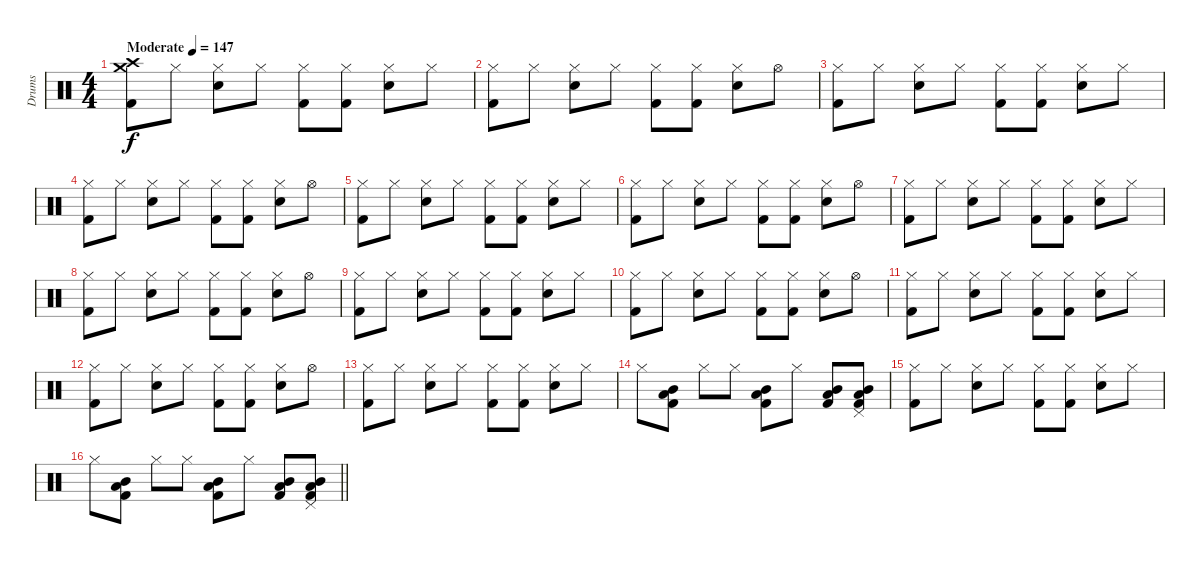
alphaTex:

\track ("Drums" "Drums") {instrument percussion}
\staff {score}
\articulation defaults
\ts (4 4)
\tempo (147 "Moderate")
\clef neutral
\ks c
("Crash medium (hit)" "Crash high (hit)" "Kick (hit) 2").8{dy f} "Hi-Hat (closed)".8 ("Hi-Hat (closed)" "Electric Snare (hit)").8 "Hi-Hat (closed)".8 ("Hi-Hat (closed)" "Kick (hit) 2").8 ("Hi-Hat (closed)" "Kick (hit) 2").8 ("Hi-Hat (closed)" "Electric Snare (hit)").8 "Hi-Hat (closed)".8 |
("Hi-Hat (closed)" "Kick (hit) 2").8 "Hi-Hat (closed)".8 ("Hi-Hat (closed)" "Electric Snare (hit)").8 "Hi-Hat (closed)".8 ("Hi-Hat (closed)" "Kick (hit) 2").8 ("Hi-Hat (closed)" "Kick (hit) 2").8 ("Hi-Hat (closed)" "Electric Snare (hit)").8 "Hi-Hat (open)".8 |
("Hi-Hat (closed)" "Kick (hit) 2").8 "Hi-Hat (closed)".8 ("Hi-Hat (closed)" "Electric Snare (hit)").8 "Hi-Hat (closed)".8 ("Hi-Hat (closed)" "Kick (hit) 2").8 ("Hi-Hat (closed)" "Kick (hit) 2").8 ("Hi-Hat (closed)" "Electric Snare (hit)").8 "Hi-Hat (closed)".8 |
("Hi-Hat (closed)" "Kick (hit) 2").8 "Hi-Hat (closed)".8 ("Hi-Hat (closed)" "Electric Snare (hit)").8 "Hi-Hat (closed)".8 ("Hi-Hat (closed)" "Kick (hit) 2").8 ("Hi-Hat (closed)" "Kick (hit) 2").8 ("Hi-Hat (closed)" "Electric Snare (hit)").8 "Hi-Hat (open)".8 |
("Hi-Hat (closed)" "Kick (hit) 2").8 "Hi-Hat (closed)".8 ("Hi-Hat (closed)" "Electric Snare (hit)").8 "Hi-Hat (closed)".8 ("Hi-Hat (closed)" "Kick (hit) 2").8 ("Hi-Hat (closed)" "Kick (hit) 2").8 ("Hi-Hat (closed)" "Electric Snare (hit)").8 "Hi-Hat (closed)".8 |
("Hi-Hat (closed)" "Kick (hit) 2").8 "Hi-Hat (closed)".8 ("Hi-Hat (closed)" "Electric Snare (hit)").8 "Hi-Hat (closed)".8 ("Hi-Hat (closed)" "Kick (hit) 2").8 ("Hi-Hat (closed)" "Kick (hit) 2").8 ("Hi-Hat (closed)" "Electric Snare (hit)").8 "Hi-Hat (open)".8 |
("Hi-Hat (closed)" "Kick (hit) 2").8 "Hi-Hat (closed)".8 ("Hi-Hat (closed)" "Electric Snare (hit)").8 "Hi-Hat (closed)".8 ("Hi-Hat (closed)" "Kick (hit) 2").8 ("Hi-Hat (closed)" "Kick (hit) 2").8 ("Hi-Hat (closed)" "Electric Snare (hit)").8 "Hi-Hat (closed)".8 |
("Hi-Hat (closed)" "Kick (hit) 2").8 "Hi-Hat (closed)".8 ("Hi-Hat (closed)" "Electric Snare (hit)").8 "Hi-Hat (closed)".8 ("Hi-Hat (closed)" "Kick (hit) 2").8 ("Hi-Hat (closed)" "Kick (hit) 2").8 ("Hi-Hat (closed)" "Electric Snare (hit)").8 "Hi-Hat (open)".8 |
("Hi-Hat (closed)" "Kick (hit) 2").8 "Hi-Hat (closed)".8 ("Hi-Hat (closed)" "Electric Snare (hit)").8 "Hi-Hat (closed)".8 ("Hi-Hat (closed)" "Kick (hit) 2").8 ("Hi-Hat (closed)" "Kick (hit) 2").8 ("Hi-Hat (closed)" "Electric Snare (hit)").8 "Hi-Hat (closed)".8 |
("Hi-Hat (closed)" "Kick (hit) 2").8 "Hi-Hat (closed)".8 ("Hi-Hat (closed)" "Electric Snare (hit)").8 "Hi-Hat (closed)".8 ("Hi-Hat (closed)" "Kick (hit) 2").8 ("Hi-Hat (closed)" "Kick (hit) 2").8 ("Hi-Hat (closed)" "Electric Snare (hit)").8 "Hi-Hat (open)".8 |
("Hi-Hat (closed)" "Kick (hit) 2").8 "Hi-Hat (closed)".8 ("Hi-Hat (closed)" "Electric Snare (hit)").8 "Hi-Hat (closed)".8 ("Hi-Hat (closed)" "Kick (hit) 2").8 ("Hi-Hat (closed)" "Kick (hit) 2").8 ("Hi-Hat (closed)" "Electric Snare (hit)").8 "Hi-Hat (closed)".8 |
("Hi-Hat (closed)" "Kick (hit) 2").8 "Hi-Hat (closed)".8 ("Hi-Hat (closed)" "Electric Snare (hit)").8 "Hi-Hat (closed)".8 ("Hi-Hat (closed)" "Kick (hit) 2").8 ("Hi-Hat (closed)" "Kick (hit) 2").8 ("Hi-Hat (closed)" "Electric Snare (hit)").8 "Hi-Hat (open)".8 |
("Hi-Hat (closed)" "Kick (hit) 2").8 "Hi-Hat (closed)".8 ("Hi-Hat (closed)" "Electric Snare (hit)").8 "Hi-Hat (closed)".8 ("Hi-Hat (closed)" "Kick (hit) 2").8 ("Hi-Hat (closed)" "Kick (hit) 2").8 ("Hi-Hat (closed)" "Electric Snare (hit)").8 "Hi-Hat (closed)".8 |
"Hi-Hat (closed)".8 ("Low Tom (hit)" "Mid Tom (hit)" "Kick (hit) 2").8{volume 16} "Hi-Hat (closed)".8 "Hi-Hat (closed)".8 ("Mid Tom (hit)" "Low Tom (hit)" "Kick (hit) 2").8 "Hi-Hat (closed)".8 ("Low Tom (hit)" "Mid Tom (hit)" "Kick (hit) 2").8 ("Pedal Hi-Hat (hit)" "Low Tom (hit)" "Mid Tom (hit)" "Kick (hit) 2").8 |
("Hi-Hat (closed)" "Kick (hit) 2").8{volume 14} "Hi-Hat (closed)".8 ("Hi-Hat (closed)" "Electric Snare (hit)").8 "Hi-Hat (closed)".8 ("Hi-Hat (closed)" "Kick (hit) 2").8 ("Hi-Hat (closed)" "Kick (hit) 2").8 ("Hi-Hat (closed)" "Electric Snare (hit)").8 "Hi-Hat (closed)".8 |
\barLineRight lightlight "Hi-Hat (closed)".8{volume 16}
("Low Tom (hit)" "Mid Tom (hit)" "Kick (hit) 2").8 "Hi-Hat (closed)".8 "Hi-Hat (closed)".8 ("Mid Tom (hit)" "Low Tom (hit)" "Kick (hit) 2").8 "Hi-Hat (closed)".8 ("Low Tom (hit)" "Mid Tom (hit)" "Kick (hit) 2").8 ("Pedal Hi-Hat (hit)" "Low Tom (hit)" "Mid Tom (hit)" "Kick (hit) 2").8
